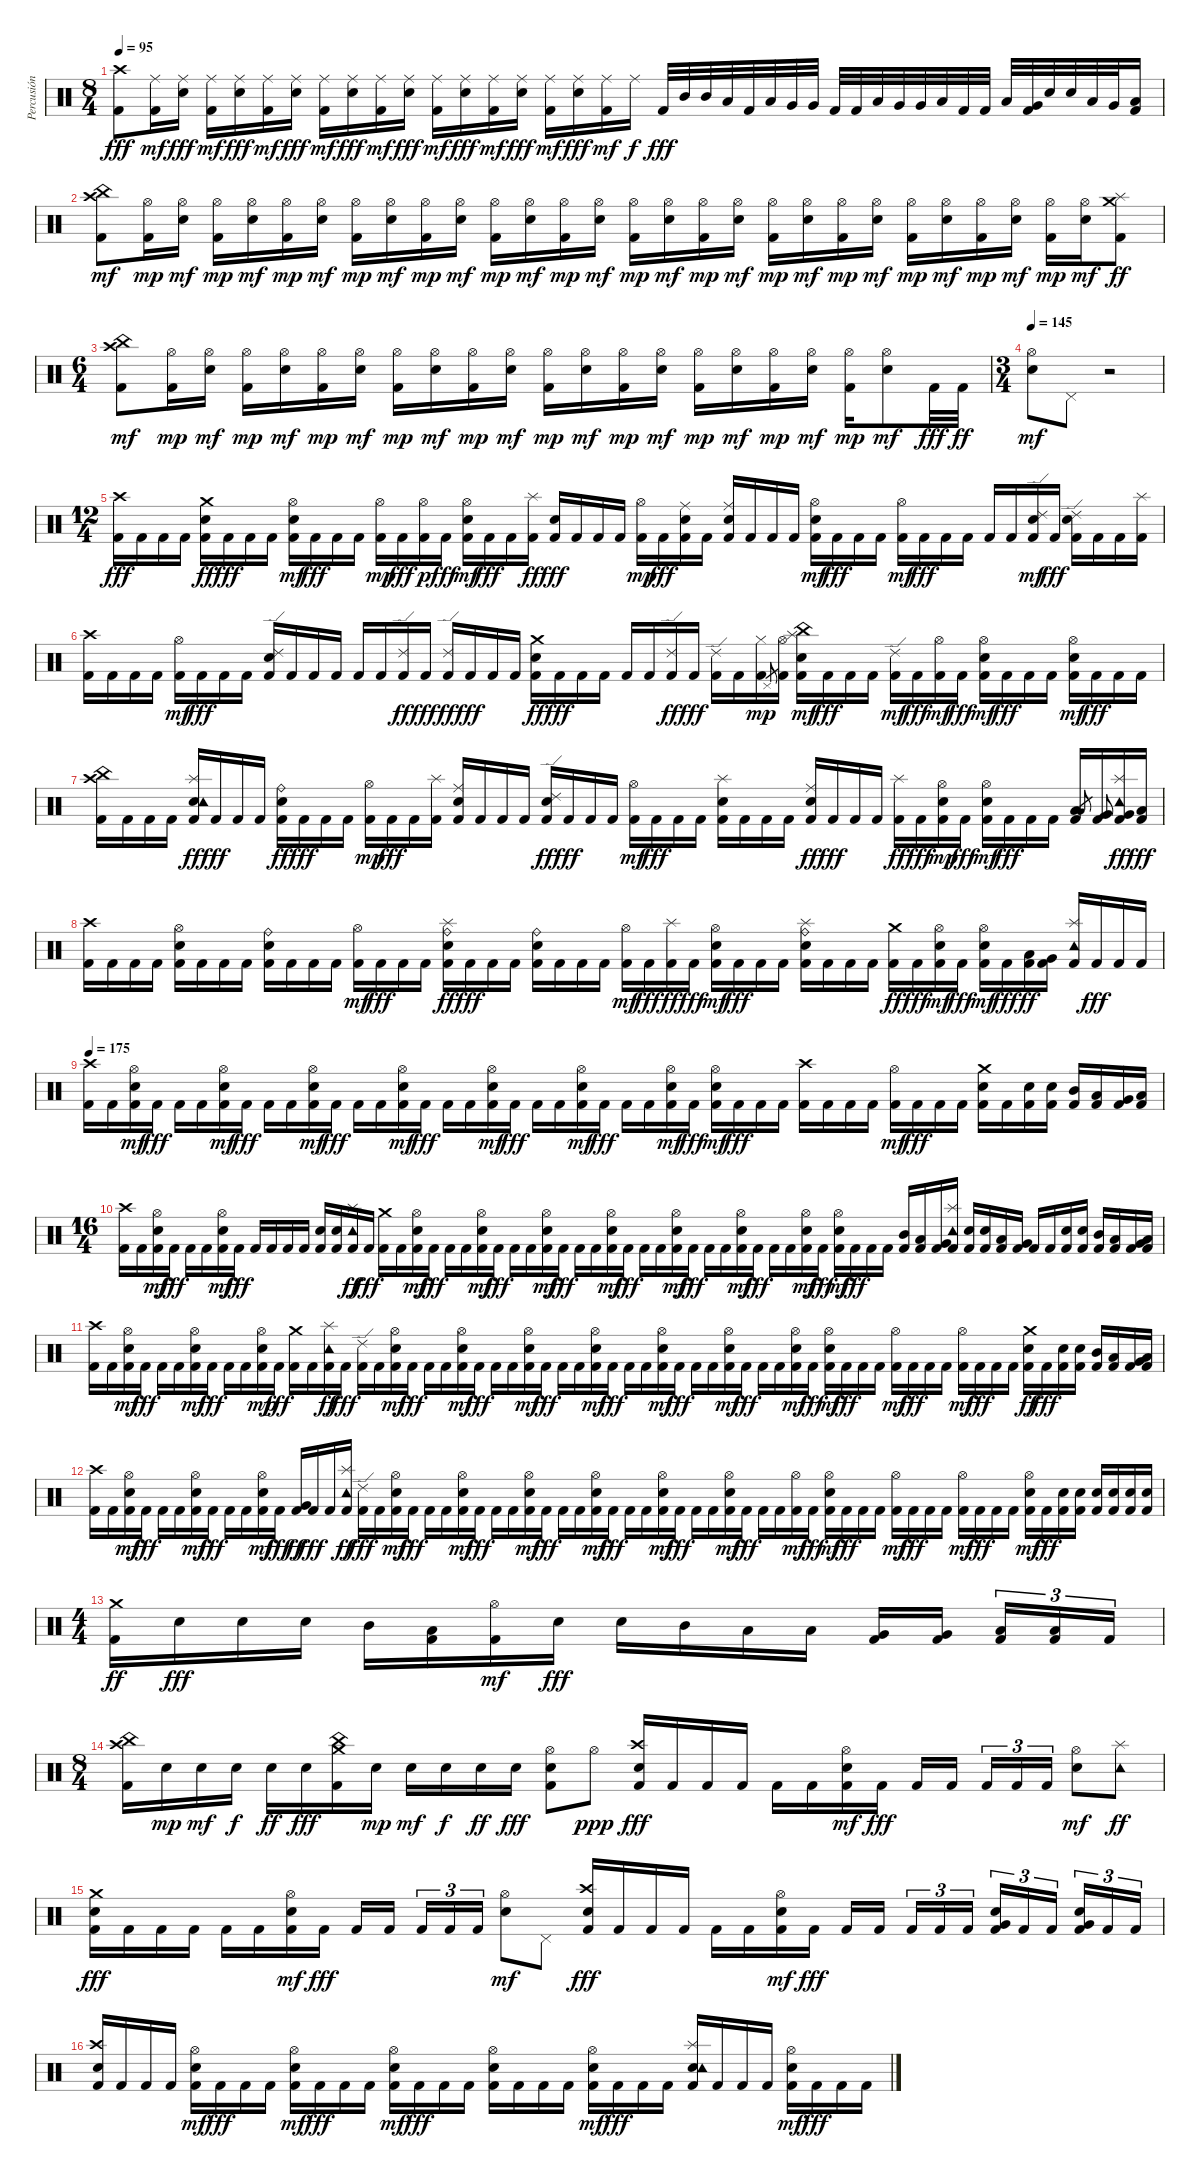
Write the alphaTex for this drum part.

\track ("Percusión" "Percusión") {instrument percussion}
\staff {score}
\articulation defaults
\ts (8 4)
\tempo 95
\clef neutral
\ks c
("Kick (hit) 2" "Crash high (hit)").8{dy fff} ("Kick (hit) 2" "Ride (middle)").16{dy mf} ("Electric Snare (hit)" "Ride (middle)").16{dy fff} ("Kick (hit) 2" "Ride (middle)").16{dy mf} ("Electric Snare (hit)" "Ride (middle)").16{dy fff} ("Kick (hit) 2" "Ride (middle)").16{dy mf} ("Electric Snare (hit)" "Ride (middle)").16{dy fff} ("Kick (hit) 2" "Ride (middle)").16{dy mf} ("Electric Snare (hit)" "Ride (middle)").16{dy fff} ("Kick (hit) 2" "Ride (middle)").16{dy mf} ("Electric Snare (hit)" "Ride (middle)").16{dy fff} ("Kick (hit) 2" "Ride (middle)").16{dy mf} ("Electric Snare (hit)" "Ride (middle)").16{dy fff} ("Kick (hit) 2" "Ride (middle)").16{dy mf} ("Electric Snare (hit)" "Ride (middle)").16{dy fff} ("Kick (hit) 2" "Ride (middle)").16{dy mf} ("Electric Snare (hit)" "Ride (middle)").16{dy fff} ("Kick (hit) 2" "Ride (middle)").16{dy mf} "Ride (middle)".16{dy f} "Kick (hit) 2".32{dy fff} "Mid Tom (hit)".32 "Mid Tom (hit)".32 "Low Tom (hit)".32 "Kick (hit) 2".32 "Low Tom (hit)".32 "Very Low Tom (hit)".32 "Very Low Tom (hit)".32 "Kick (hit) 2".32 "Kick (hit) 2".32 "Low Tom (hit)".32 "Very Low Tom (hit)".32 "Very Low Tom (hit)".32 "Low Floor Tom (hit)".32 "Kick (hit) 2".32 "Kick (hit) 2".32 "Low Tom (hit)".32 ("Kick (hit) 2" "Very Low Tom (hit)").32 "Electric Snare (hit)".32 "Electric Snare (hit)".32 "Low Tom (hit)".32 "Very Low Tom (hit)".32 ("Kick (hit) 2" "Low Floor Tom (hit)").16 |
("Kick (hit) 2" "Crash high (hit)" "China (hit)").8{dy mf} ("Kick (hit) 2" "Hi-Hat (open)").16{dy mp} ("Electric Snare (hit)" "Hi-Hat (open)").16{dy mf} ("Kick (hit) 2" "Hi-Hat (open)").16{dy mp} ("Electric Snare (hit)" "Hi-Hat (open)").16{dy mf} ("Kick (hit) 2" "Hi-Hat (open)").16{dy mp} ("Electric Snare (hit)" "Hi-Hat (open)").16{dy mf} ("Kick (hit) 2" "Hi-Hat (open)").16{dy mp} ("Electric Snare (hit)" "Hi-Hat (open)").16{dy mf} ("Kick (hit) 2" "Hi-Hat (open)").16{dy mp} ("Electric Snare (hit)" "Hi-Hat (open)").16{dy mf} ("Kick (hit) 2" "Hi-Hat (open)").16{dy mp} ("Electric Snare (hit)" "Hi-Hat (open)").16{dy mf} ("Kick (hit) 2" "Hi-Hat (open)").16{dy mp} ("Electric Snare (hit)" "Hi-Hat (open)").16{dy mf} ("Kick (hit) 2" "Hi-Hat (open)").16{dy mp} ("Electric Snare (hit)" "Hi-Hat (open)").16{dy mf} ("Kick (hit) 2" "Hi-Hat (open)").16{dy mp} ("Electric Snare (hit)" "Hi-Hat (open)").16{dy mf} ("Kick (hit) 2" "Hi-Hat (open)").16{dy mp} ("Electric Snare (hit)" "Hi-Hat (open)").16{dy mf} ("Kick (hit) 2" "Hi-Hat (open)").16{dy mp} ("Electric Snare (hit)" "Hi-Hat (open)").16{dy mf} ("Kick (hit) 2" "Hi-Hat (open)").16{dy mp} ("Electric Snare (hit)" "Hi-Hat (open)").16{dy mf} ("Kick (hit) 2" "Hi-Hat (open)").16{dy mp} ("Electric Snare (hit)" "Hi-Hat (open)").16{dy mf} ("Kick (hit) 2" "Hi-Hat (open)").16{dy mp} ("Electric Snare (hit)" "Hi-Hat (open)").16{dy mf} ("Kick (hit) 2" "Crash medium (hit)" "Splash (hit)").8{dy ff} |
\ts (6 4)
("Kick (hit) 2" "Crash high (hit)" "China (hit)").8{dy mf} ("Kick (hit) 2" "Hi-Hat (open)").16{dy mp} ("Electric Snare (hit)" "Hi-Hat (open)").16{dy mf} ("Kick (hit) 2" "Hi-Hat (open)").16{dy mp} ("Electric Snare (hit)" "Hi-Hat (open)").16{dy mf} ("Kick (hit) 2" "Hi-Hat (open)").16{dy mp} ("Electric Snare (hit)" "Hi-Hat (open)").16{dy mf} ("Kick (hit) 2" "Hi-Hat (open)").16{dy mp} ("Electric Snare (hit)" "Hi-Hat (open)").16{dy mf} ("Kick (hit) 2" "Hi-Hat (open)").16{dy mp} ("Electric Snare (hit)" "Hi-Hat (open)").16{dy mf} ("Kick (hit) 2" "Hi-Hat (open)").16{dy mp} ("Electric Snare (hit)" "Hi-Hat (open)").16{dy mf} ("Kick (hit) 2" "Hi-Hat (open)").16{dy mp} ("Electric Snare (hit)" "Hi-Hat (open)").16{dy mf} ("Kick (hit) 2" "Hi-Hat (open)").16{dy mp} ("Electric Snare (hit)" "Hi-Hat (open)").16{dy mf} ("Kick (hit) 2" "Hi-Hat (open)").16{dy mp} ("Electric Snare (hit)" "Hi-Hat (open)").16{dy mf} ("Kick (hit) 2" "Hi-Hat (open)").16{dy mp} ("Electric Snare (hit)" "Hi-Hat (open)").8{dy mf} "Kick (hit) 2".32{dy fff} "Kick (hit) 2".32{dy ff} |
\ts (3 4)
\tempo 145
("Electric Snare (hit)" "Hi-Hat (open)").8{dy mf} "Pedal Hi-Hat (hit)".8 r.2 |
\ts (12 4)
("Kick (hit) 2" "Crash high (hit)").16{dy fff} "Kick (hit) 2".16 "Kick (hit) 2".16 "Kick (hit) 2".16 ("Kick (hit) 2" "Electric Snare (hit)" "Crash medium (hit)").16{dy ff} "Kick (hit) 2".16{dy fff} "Kick (hit) 2".16 "Kick (hit) 2".16 ("Kick (hit) 2" "Electric Snare (hit)" "Hi-Hat (open)").16{dy mf} "Kick (hit) 2".16{dy fff} "Kick (hit) 2".16 "Kick (hit) 2".16 ("Kick (hit) 2" "Hi-Hat (open)").16{dy mp} "Kick (hit) 2".16{dy fff} ("Kick (hit) 2" "Hi-Hat (open)").16{dy p} "Kick (hit) 2".16{dy fff} ("Kick (hit) 2" "Electric Snare (hit)" "Hi-Hat (open)").16{dy mf} "Kick (hit) 2".16{dy fff} "Kick (hit) 2".16 ("Kick (hit) 2" "Splash (hit)").16{dy ff} ("Kick (hit) 2" "Electric Snare (hit)").16{dy fff} "Kick (hit) 2".16 "Kick (hit) 2".16 "Kick (hit) 2".16 ("Kick (hit) 2" "Hi-Hat (open)").16{dy mp} "Kick (hit) 2".16{dy fff} ("Kick (hit) 2" "Electric Snare (hit)" "Ride (middle)").16 "Kick (hit) 2".16 ("Kick (hit) 2" "Electric Snare (hit)" "Ride (middle)").16 "Kick (hit) 2".16 "Kick (hit) 2".16 "Kick (hit) 2".16 ("Kick (hit) 2" "Electric Snare (hit)" "Hi-Hat (open)").16{dy mf} "Kick (hit) 2".16{dy fff} "Kick (hit) 2".16 "Kick (hit) 2".16 ("Kick (hit) 2" "Hi-Hat (open)").16{dy mf} "Kick (hit) 2".16{dy fff} "Kick (hit) 2".16 "Kick (hit) 2".16 "Kick (hit) 2".16 "Kick (hit) 2".16 ("Kick (hit) 2" "Electric Snare (hit)" "Ride (edge) 2").16{dy mf} "Kick (hit) 2".16{dy fff} ("Kick (hit) 2" "Electric Snare (hit)" "Ride (edge) 2").16 "Kick (hit) 2".16 "Kick (hit) 2".16 ("Kick (hit) 2" "Splash (hit)").16 |
("Kick (hit) 2" "Crash high (hit)").16 "Kick (hit) 2".16 "Kick (hit) 2".16 "Kick (hit) 2".16 ("Kick (hit) 2" "Hi-Hat (open)").16{dy mf} "Kick (hit) 2".16{dy fff} "Kick (hit) 2".16 "Kick (hit) 2".16 ("Kick (hit) 2" "Electric Snare (hit)" "Ride (edge) 2").16 "Kick (hit) 2".16 "Kick (hit) 2".16 "Kick (hit) 2".16 "Kick (hit) 2".16 "Kick (hit) 2".16 ("Kick (hit) 2" "Ride (edge) 2").16{dy ff} "Kick (hit) 2".16{dy fff} ("Kick (hit) 2" "Ride (edge) 2").16{dy ff} "Kick (hit) 2".16{dy fff} "Kick (hit) 2".16 "Kick (hit) 2".16 ("Kick (hit) 2" "Electric Snare (hit)" "Crash medium (hit)").16{dy ff} "Kick (hit) 2".16{dy fff} "Kick (hit) 2".16 "Kick (hit) 2".16 "Kick (hit) 2".16 "Kick (hit) 2".16 ("Kick (hit) 2" "Ride (edge) 2").16{dy ff} "Kick (hit) 2".16{dy fff} ("Kick (hit) 2" "Ride (edge) 2").16 "Kick (hit) 2".16 ("Kick (hit) 2" "Hi-Hat (closed)").16{dy mp} "Pedal Hi-Hat (hit)".8{gr} ("Kick (hit) 2" "Hi-Hat (open)").16 ("Kick (hit) 2" "Electric Snare (hit)" "Splash (hit)" "China (hit)").16{dy mf} "Kick (hit) 2".16{dy fff} "Kick (hit) 2".16 "Kick (hit) 2".16 ("Kick (hit) 2" "Ride (edge) 2").16{dy mf} "Kick (hit) 2".16{dy fff} ("Kick (hit) 2" "Hi-Hat (open)").16{dy mf} "Kick (hit) 2".16{dy fff} ("Kick (hit) 2" "Electric Snare (hit)" "Hi-Hat (open)").16{dy mf} "Kick (hit) 2".16{dy fff} "Kick (hit) 2".16 "Kick (hit) 2".16 ("Kick (hit) 2" "Electric Snare (hit)" "Hi-Hat (open)").16{dy mf} "Kick (hit) 2".16{dy fff} "Kick (hit) 2".16 "Kick (hit) 2".16 |
("Kick (hit) 2" "Crash high (hit)" "China (hit)").16 "Kick (hit) 2".16 "Kick (hit) 2".16 "Kick (hit) 2".16 ("Kick (hit) 2" "Electric Snare (hit)" "Splash (hit)" "Tambourine (hit)").16{dy ff} "Kick (hit) 2".16{dy fff} "Kick (hit) 2".16 "Kick (hit) 2".16 ("Kick (hit) 2" "Electric Snare (hit)" "Ride (bell)").16{dy ff} "Kick (hit) 2".16{dy fff} "Kick (hit) 2".16 "Kick (hit) 2".16 ("Kick (hit) 2" "Hi-Hat (open)").16{dy mp} "Kick (hit) 2".16{dy fff} "Kick (hit) 2".16 ("Kick (hit) 2" "Splash (hit)").16 ("Kick (hit) 2" "Electric Snare (hit)" "Ride (middle)").16 "Kick (hit) 2".16 "Kick (hit) 2".16 "Kick (hit) 2".16 ("Kick (hit) 2" "Electric Snare (hit)" "Ride (edge) 2").16{dy ff} "Kick (hit) 2".16{dy fff} "Kick (hit) 2".16 "Kick (hit) 2".16 ("Kick (hit) 2" "Hi-Hat (open)").16{dy mf} "Kick (hit) 2".16{dy fff} "Kick (hit) 2".16 "Kick (hit) 2".16 ("Kick (hit) 2" "Electric Snare (hit)" "Splash (hit)").16 "Kick (hit) 2".16 "Kick (hit) 2".16 "Kick (hit) 2".16 ("Kick (hit) 2" "Electric Snare (hit)" "Ride (middle)").16{dy ff} "Kick (hit) 2".16{dy fff} "Kick (hit) 2".16 "Kick (hit) 2".16 ("Kick (hit) 2" "Splash (hit)").16{dy ff} "Kick (hit) 2".16{dy fff} ("Kick (hit) 2" "Electric Snare (hit)" "Hi-Hat (open)").16{dy mp} "Kick (hit) 2".16{dy fff} ("Kick (hit) 2" "Electric Snare (hit)" "Hi-Hat (open)").16{dy mf} "Kick (hit) 2".16{dy fff} "Kick (hit) 2".16 "Kick (hit) 2".16 ("Kick (hit) 2" "Low Tom (hit)").16 "Low Tom (hit)".8{gr} ("Kick (hit) 2" "Very Low Tom (hit)").16 "Very Low Tom (hit)".8{gr onbeat} ("Kick (hit) 2" "Very Low Tom (hit)" "Splash (hit)" "Tambourine (hit)").16{dy ff} ("Kick (hit) 2" "Low Floor Tom (hit)").16{dy fff} |
("Kick (hit) 2" "Crash high (hit)").16 "Kick (hit) 2".16 "Kick (hit) 2".16 "Kick (hit) 2".16 ("Kick (hit) 2" "Electric Snare (hit)" "Hi-Hat (open)").16 "Kick (hit) 2".16 "Kick (hit) 2".16 "Kick (hit) 2".16 ("Kick (hit) 2" "Electric Snare (hit)" "Ride (bell)").16 "Kick (hit) 2".16 "Kick (hit) 2".16 "Kick (hit) 2".16 ("Kick (hit) 2" "Hi-Hat (open)").16{dy mf} "Kick (hit) 2".16{dy fff} "Kick (hit) 2".16 "Kick (hit) 2".16 ("Kick (hit) 2" "Electric Snare (hit)" "Ride (bell)" "Splash (hit)").16{dy ff} "Kick (hit) 2".16{dy fff} "Kick (hit) 2".16 "Kick (hit) 2".16 ("Kick (hit) 2" "Electric Snare (hit)" "Ride (bell)").16 "Kick (hit) 2".16 "Kick (hit) 2".16 "Kick (hit) 2".16 ("Kick (hit) 2" "Hi-Hat (open)").16{dy mf} "Kick (hit) 2".16{dy fff} ("Kick (hit) 2" "Splash (hit)").16{dy ff} "Kick (hit) 2".16{dy fff} ("Kick (hit) 2" "Electric Snare (hit)" "Hi-Hat (open)").16{dy mf} "Kick (hit) 2".16{dy fff} "Kick (hit) 2".16 "Kick (hit) 2".16 ("Kick (hit) 2" "Electric Snare (hit)" "Splash (hit)" "Ride (bell)").16 "Kick (hit) 2".16 "Kick (hit) 2".16 "Kick (hit) 2".16 ("Kick (hit) 2" "Crash medium (hit)").16{dy ff} "Kick (hit) 2".16{dy fff} ("Kick (hit) 2" "Electric Snare (hit)" "Hi-Hat (open)").16{dy mf} "Kick (hit) 2".16{dy fff} ("Kick (hit) 2" "Electric Snare (hit)" "Hi-Hat (open)").16{dy mf} "Kick (hit) 2".16{dy fff} ("Kick (hit) 2" "Low Tom (hit)").16{dy ff} ("Kick (hit) 2" "Very Low Tom (hit)").16 ("Kick (hit) 2" "Splash (hit)" "Tambourine (hit)").16 "Kick (hit) 2".16{dy fff} "Kick (hit) 2".16 "Kick (hit) 2".16 |
\tempo 175
("Kick (hit) 2" "Crash high (hit)").16 "Kick (hit) 2".16 ("Kick (hit) 2" "Electric Snare (hit)" "Hi-Hat (open)").16{dy mf} "Kick (hit) 2".16{dy fff} "Kick (hit) 2".16 "Kick (hit) 2".16 ("Kick (hit) 2" "Electric Snare (hit)" "Hi-Hat (open)").16{dy mf} "Kick (hit) 2".16{dy fff} "Kick (hit) 2".16 "Kick (hit) 2".16 ("Kick (hit) 2" "Electric Snare (hit)" "Hi-Hat (open)").16{dy mf} "Kick (hit) 2".16{dy fff} "Kick (hit) 2".16 "Kick (hit) 2".16 ("Kick (hit) 2" "Electric Snare (hit)" "Hi-Hat (open)").16{dy mf} "Kick (hit) 2".16{dy fff} "Kick (hit) 2".16 "Kick (hit) 2".16 ("Kick (hit) 2" "Electric Snare (hit)" "Hi-Hat (open)").16{dy mf} "Kick (hit) 2".16{dy fff} "Kick (hit) 2".16 "Kick (hit) 2".16 ("Kick (hit) 2" "Electric Snare (hit)" "Hi-Hat (open)").16{dy mf} "Kick (hit) 2".16{dy fff} "Kick (hit) 2".16 "Kick (hit) 2".16 ("Kick (hit) 2" "Electric Snare (hit)" "Hi-Hat (open)").16{dy mf} "Kick (hit) 2".16{dy fff} ("Kick (hit) 2" "Electric Snare (hit)" "Hi-Hat (open)").16{dy mf} "Kick (hit) 2".16{dy fff} "Kick (hit) 2".16 "Kick (hit) 2".16 ("Kick (hit) 2" "Crash high (hit)").16 "Kick (hit) 2".16 "Kick (hit) 2".16 "Kick (hit) 2".16 ("Kick (hit) 2" "Hi-Hat (open)").16{dy mf} "Kick (hit) 2".16{dy fff} "Kick (hit) 2".16 "Kick (hit) 2".16 ("Kick (hit) 2" "Electric Snare (hit)" "Crash medium (hit)").16 "Kick (hit) 2".16 ("Kick (hit) 2" "Electric Snare (hit)").16 ("Kick (hit) 2" "Electric Snare (hit)").16 ("Kick (hit) 2" "Mid Tom (hit)").16 ("Kick (hit) 2" "Low Tom (hit)").16 ("Kick (hit) 2" "Very Low Tom (hit)").16 ("Kick (hit) 2" "Low Floor Tom (hit)").16 |
\ts (16 4)
("Kick (hit) 2" "Crash high (hit)").16 "Kick (hit) 2".16 ("Kick (hit) 2" "Electric Snare (hit)" "Hi-Hat (open)").16{dy mf} "Kick (hit) 2".16{dy fff} "Kick (hit) 2".16 "Kick (hit) 2".16 ("Kick (hit) 2" "Electric Snare (hit)" "Hi-Hat (open)").16{dy mf} "Kick (hit) 2".16{dy fff} "Kick (hit) 2".16 "Kick (hit) 2".16 "Kick (hit) 2".16 "Kick (hit) 2".16 ("Kick (hit) 2" "Electric Snare (hit)").16 ("Kick (hit) 2" "Electric Snare (hit)").16 ("Kick (hit) 2" "Splash (hit)" "Tambourine (hit)").16{dy ff} "Kick (hit) 2".16{dy fff} ("Kick (hit) 2" "Crash medium (hit)").16 "Kick (hit) 2".16 ("Kick (hit) 2" "Electric Snare (hit)" "Hi-Hat (open)").16{dy mf} "Kick (hit) 2".16{dy fff} "Kick (hit) 2".16 "Kick (hit) 2".16 ("Kick (hit) 2" "Electric Snare (hit)" "Hi-Hat (open)").16{dy mf} "Kick (hit) 2".16{dy fff} "Kick (hit) 2".16 "Kick (hit) 2".16 ("Kick (hit) 2" "Electric Snare (hit)" "Hi-Hat (open)").16{dy mf} "Kick (hit) 2".16{dy fff} "Kick (hit) 2".16 "Kick (hit) 2".16 ("Kick (hit) 2" "Electric Snare (hit)" "Hi-Hat (open)").16{dy mf} "Kick (hit) 2".16{dy fff} "Kick (hit) 2".16 "Kick (hit) 2".16 ("Kick (hit) 2" "Electric Snare (hit)" "Hi-Hat (open)").16{dy mf} "Kick (hit) 2".16{dy fff} "Kick (hit) 2".16 "Kick (hit) 2".16 ("Kick (hit) 2" "Electric Snare (hit)" "Hi-Hat (open)").16{dy mf} "Kick (hit) 2".16{dy fff} "Kick (hit) 2".16 "Kick (hit) 2".16 ("Kick (hit) 2" "Electric Snare (hit)" "Hi-Hat (open)").16{dy mf} "Kick (hit) 2".16{dy fff} ("Kick (hit) 2" "Electric Snare (hit)" "Hi-Hat (open)").16{dy mf} "Kick (hit) 2".16{dy fff} "Kick (hit) 2".16 "Kick (hit) 2".16 ("Kick (hit) 2" "Mid Tom (hit)").16 ("Kick (hit) 2" "Low Tom (hit)").16 ("Kick (hit) 2" "Very Low Tom (hit)").16 ("Kick (hit) 2" "Splash (hit)" "Tambourine (hit)").16 ("Kick (hit) 2" "Electric Snare (hit)").16 ("Kick (hit) 2" "Electric Snare (hit)").16 ("Kick (hit) 2" "Low Tom (hit)").16 ("Kick (hit) 2" "Very Low Tom (hit)").16 "Kick (hit) 2".16 "Kick (hit) 2".16 ("Kick (hit) 2" "Electric Snare (hit)").16 ("Kick (hit) 2" "Electric Snare (hit)").16 ("Kick (hit) 2" "Mid Tom (hit)").16 ("Kick (hit) 2" "Low Tom (hit)").16 ("Kick (hit) 2" "Very Low Tom (hit)").16 ("Kick (hit) 2" "Low Floor Tom (hit)").16 |
("Kick (hit) 2" "Crash high (hit)").16 "Kick (hit) 2".16 ("Kick (hit) 2" "Electric Snare (hit)" "Hi-Hat (open)").16{dy mf} "Kick (hit) 2".16{dy fff} "Kick (hit) 2".16 "Kick (hit) 2".16 ("Kick (hit) 2" "Electric Snare (hit)" "Hi-Hat (open)").16{dy mf} "Kick (hit) 2".16{dy fff} "Kick (hit) 2".16 "Kick (hit) 2".16 ("Kick (hit) 2" "Electric Snare (hit)" "Hi-Hat (open)").16{dy mp} "Kick (hit) 2".16{dy fff} ("Kick (hit) 2" "Crash medium (hit)").16 "Kick (hit) 2".16 ("Kick (hit) 2" "Splash (hit)" "Tambourine (hit)").16{dy ff} "Kick (hit) 2".16{dy fff} ("Kick (hit) 2" "Ride (edge) 2").16 "Kick (hit) 2".16 ("Kick (hit) 2" "Electric Snare (hit)" "Hi-Hat (open)").16{dy mf} "Kick (hit) 2".16{dy fff} "Kick (hit) 2".16 "Kick (hit) 2".16 ("Kick (hit) 2" "Electric Snare (hit)" "Hi-Hat (open)").16{dy mf} "Kick (hit) 2".16{dy fff} "Kick (hit) 2".16 "Kick (hit) 2".16 ("Kick (hit) 2" "Electric Snare (hit)" "Hi-Hat (open)").16{dy mf} "Kick (hit) 2".16{dy fff} "Kick (hit) 2".16 "Kick (hit) 2".16 ("Kick (hit) 2" "Electric Snare (hit)" "Hi-Hat (open)").16{dy mf} "Kick (hit) 2".16{dy fff} "Kick (hit) 2".16 "Kick (hit) 2".16 ("Kick (hit) 2" "Electric Snare (hit)" "Hi-Hat (open)").16{dy mf} "Kick (hit) 2".16{dy fff} "Kick (hit) 2".16 "Kick (hit) 2".16 ("Kick (hit) 2" "Electric Snare (hit)" "Hi-Hat (open)").16{dy mf} "Kick (hit) 2".16{dy fff} "Kick (hit) 2".16 "Kick (hit) 2".16 ("Kick (hit) 2" "Electric Snare (hit)" "Hi-Hat (open)").16{dy mf} "Kick (hit) 2".16{dy fff} ("Kick (hit) 2" "Electric Snare (hit)" "Hi-Hat (open)").16{dy mf} "Kick (hit) 2".16{dy fff} "Kick (hit) 2".16 "Kick (hit) 2".16 ("Kick (hit) 2" "Hi-Hat (open)").16{dy mf} "Kick (hit) 2".16{dy fff} "Kick (hit) 2".16 "Kick (hit) 2".16 ("Kick (hit) 2" "Hi-Hat (open)").16{dy mf} "Kick (hit) 2".16{dy fff} "Kick (hit) 2".16 "Kick (hit) 2".16 ("Kick (hit) 2" "Electric Snare (hit)" "Crash medium (hit)").16{dy ff} "Kick (hit) 2".16{dy fff} ("Kick (hit) 2" "Electric Snare (hit)").16 ("Kick (hit) 2" "Electric Snare (hit)").16 ("Kick (hit) 2" "Mid Tom (hit)").16 ("Kick (hit) 2" "Low Tom (hit)").16 ("Kick (hit) 2" "Very Low Tom (hit)").16 ("Kick (hit) 2" "Low Floor Tom (hit)").16 |
("Kick (hit) 2" "Crash high (hit)").16 "Kick (hit) 2".16 ("Kick (hit) 2" "Electric Snare (hit)" "Hi-Hat (open)").16{dy mf} "Kick (hit) 2".16{dy fff} "Kick (hit) 2".16 "Kick (hit) 2".16 ("Kick (hit) 2" "Electric Snare (hit)" "Hi-Hat (open)").16{dy mf} "Kick (hit) 2".16{dy fff} "Kick (hit) 2".16 "Kick (hit) 2".16 ("Kick (hit) 2" "Electric Snare (hit)" "Hi-Hat (open)").16{dy mf} "Kick (hit) 2".16{dy fff} ("Kick (hit) 2" "Very Low Tom (hit)").16{dy ff} "Kick (hit) 2".16{dy fff} "Kick (hit) 2".16 ("Kick (hit) 2" "Splash (hit)" "Tambourine (hit)").16{dy ff} ("Kick (hit) 2" "Ride (edge) 2").16{dy fff} "Kick (hit) 2".16 ("Kick (hit) 2" "Electric Snare (hit)" "Hi-Hat (open)").16{dy mf} "Kick (hit) 2".16{dy fff} "Kick (hit) 2".16 "Kick (hit) 2".16 ("Kick (hit) 2" "Electric Snare (hit)" "Hi-Hat (open)").16{dy mf} "Kick (hit) 2".16{dy fff} "Kick (hit) 2".16 "Kick (hit) 2".16 ("Kick (hit) 2" "Electric Snare (hit)" "Hi-Hat (open)").16{dy mf} "Kick (hit) 2".16{dy fff} "Kick (hit) 2".16 "Kick (hit) 2".16 ("Kick (hit) 2" "Electric Snare (hit)" "Hi-Hat (open)").16{dy mf} "Kick (hit) 2".16{dy fff} "Kick (hit) 2".16 "Kick (hit) 2".16 ("Kick (hit) 2" "Electric Snare (hit)" "Hi-Hat (open)").16{dy mf} "Kick (hit) 2".16{dy fff} "Kick (hit) 2".16 "Kick (hit) 2".16 ("Kick (hit) 2" "Electric Snare (hit)" "Hi-Hat (open)").16{dy mf} "Kick (hit) 2".16{dy fff} "Kick (hit) 2".16 "Kick (hit) 2".16 ("Kick (hit) 2" "Hi-Hat (open)").16{dy mf} "Kick (hit) 2".16{dy fff} ("Kick (hit) 2" "Electric Snare (hit)" "Hi-Hat (open)").16{dy mf} "Kick (hit) 2".16{dy fff} "Kick (hit) 2".16 "Kick (hit) 2".16 ("Kick (hit) 2" "Hi-Hat (open)").16{dy mf} "Kick (hit) 2".16{dy fff} "Kick (hit) 2".16 "Kick (hit) 2".16 ("Kick (hit) 2" "Hi-Hat (open)").16{dy mf} "Kick (hit) 2".16{dy fff} "Kick (hit) 2".16 "Kick (hit) 2".16 ("Kick (hit) 2" "Electric Snare (hit)" "Hi-Hat (open)").16{dy mf} "Kick (hit) 2".16{dy fff} ("Kick (hit) 2" "Electric Snare (hit)").16 ("Kick (hit) 2" "Electric Snare (hit)").16 ("Kick (hit) 2" "Electric Snare (hit)").16 ("Kick (hit) 2" "Electric Snare (hit)").16 ("Kick (hit) 2" "Electric Snare (hit)").16 ("Kick (hit) 2" "Electric Snare (hit)").16 |
\ts (4 4)
("Kick (hit) 2" "Crash medium (hit)").16{dy ff} "Electric Snare (hit)".16{dy fff} "Electric Snare (hit)".16 "Electric Snare (hit)".16 "Mid Tom (hit)".16 ("Kick (hit) 2" "Low Tom (hit)").16 ("Kick (hit) 2" "Hi-Hat (open)").16{dy mf} "Electric Snare (hit)".16{dy fff} "Electric Snare (hit)".16 "Mid Tom (hit)".16 "Low Tom (hit)".16 "Low Tom (hit)".16 ("Kick (hit) 2" "Very Low Tom (hit)").16 ("Kick (hit) 2" "Very Low Tom (hit)").16{beam splitsecondary} ("Kick (hit) 2" "Low Floor Tom (hit)").16{tu (3 2)} ("Kick (hit) 2" "Low Floor Tom (hit)").16{tu (3 2)} "Kick (hit) 2".16{tu (3 2)} |
\ts (8 4)
("Kick (hit) 2" "Crash high (hit)" "China (hit)").16 "Electric Snare (hit)".16{dy mp} "Electric Snare (hit)".16{dy mf} "Electric Snare (hit)".16{dy f} "Electric Snare (hit)".16{dy ff} "Electric Snare (hit)".16{dy fff} ("Kick (hit) 2" "Crash medium (hit)" "China (hit)").16 "Electric Snare (hit)".16{dy mp} "Electric Snare (hit)".16{dy mf} "Electric Snare (hit)".16{dy f} "Electric Snare (hit)".16{dy ff} "Electric Snare (hit)".16{dy fff} ("Kick (hit) 2" "Electric Snare (hit)" "Hi-Hat (open)").8 "Hi-Hat (open)".8{dy ppp} ("Kick (hit) 2" "Electric Snare (hit)" "Crash high (hit)").16{dy fff} "Kick (hit) 2".16 "Kick (hit) 2".16 "Kick (hit) 2".16 "Kick (hit) 2".16 "Kick (hit) 2".16 ("Kick (hit) 2" "Electric Snare (hit)" "Hi-Hat (open)").16{dy mf} "Kick (hit) 2".16{dy fff} "Kick (hit) 2".16 "Kick (hit) 2".16{beam splitsecondary} "Kick (hit) 2".16{tu (3 2)} "Kick (hit) 2".16{tu (3 2)} "Kick (hit) 2".16{tu (3 2)} ("Electric Snare (hit)" "Hi-Hat (open)").8{dy mf} ("Splash (hit)" "Tambourine (hit)").8{dy ff} |
("Kick (hit) 2" "Electric Snare (hit)" "Crash medium (hit)").16{dy fff} "Kick (hit) 2".16 "Kick (hit) 2".16 "Kick (hit) 2".16 "Kick (hit) 2".16 "Kick (hit) 2".16 ("Kick (hit) 2" "Electric Snare (hit)" "Hi-Hat (open)").16{dy mf} "Kick (hit) 2".16{dy fff} "Kick (hit) 2".16 "Kick (hit) 2".16{beam splitsecondary} "Kick (hit) 2".16{tu (3 2)} "Kick (hit) 2".16{tu (3 2)} "Kick (hit) 2".16{tu (3 2)} ("Electric Snare (hit)" "Hi-Hat (open)").8{dy mf} "Pedal Hi-Hat (hit)".8 ("Kick (hit) 2" "Electric Snare (hit)" "Crash high (hit)").16{dy fff} "Kick (hit) 2".16 "Kick (hit) 2".16 "Kick (hit) 2".16 "Kick (hit) 2".16 "Kick (hit) 2".16 ("Kick (hit) 2" "Electric Snare (hit)" "Hi-Hat (open)").16{dy mf} "Kick (hit) 2".16{dy fff} "Kick (hit) 2".16 "Kick (hit) 2".16{beam splitsecondary} "Kick (hit) 2".16{tu (3 2)} "Kick (hit) 2".16{tu (3 2)} "Kick (hit) 2".16{tu (3 2)} ("Kick (hit) 2" "Electric Snare (hit)" "Very Low Tom (hit)").16{tu (3 2)} "Kick (hit) 2".16{tu (3 2)} "Kick (hit) 2".16{tu (3 2) beam splitsecondary} ("Kick (hit) 2" "Electric Snare (hit)" "Very Low Tom (hit)").16{tu (3 2)} "Kick (hit) 2".16{tu (3 2)} "Kick (hit) 2".16{tu (3 2)} |
("Kick (hit) 2" "Electric Snare (hit)" "Crash high (hit)").16 "Kick (hit) 2".16 "Kick (hit) 2".16 "Kick (hit) 2".16 ("Kick (hit) 2" "Electric Snare (hit)" "Hi-Hat (open)").16{dy mf} "Kick (hit) 2".16{dy fff} "Kick (hit) 2".16 "Kick (hit) 2".16 ("Kick (hit) 2" "Electric Snare (hit)" "Hi-Hat (open)").16{dy mf} "Kick (hit) 2".16{dy fff} "Kick (hit) 2".16 "Kick (hit) 2".16 ("Kick (hit) 2" "Electric Snare (hit)" "Hi-Hat (open)").16{dy mf} "Kick (hit) 2".16{dy fff} "Kick (hit) 2".16 "Kick (hit) 2".16 ("Kick (hit) 2" "Electric Snare (hit)" "Hi-Hat (open)").16 "Kick (hit) 2".16 "Kick (hit) 2".16 "Kick (hit) 2".16 ("Kick (hit) 2" "Electric Snare (hit)" "Hi-Hat (open)").16{dy mf} "Kick (hit) 2".16{dy fff} "Kick (hit) 2".16 "Kick (hit) 2".16 ("Kick (hit) 2" "Electric Snare (hit)" "Splash (hit)" "Tambourine (hit)").16 "Kick (hit) 2".16 "Kick (hit) 2".16 "Kick (hit) 2".16 ("Kick (hit) 2" "Electric Snare (hit)" "Hi-Hat (open)").16{dy mf} "Kick (hit) 2".16{dy fff} "Kick (hit) 2".16 "Kick (hit) 2".16
